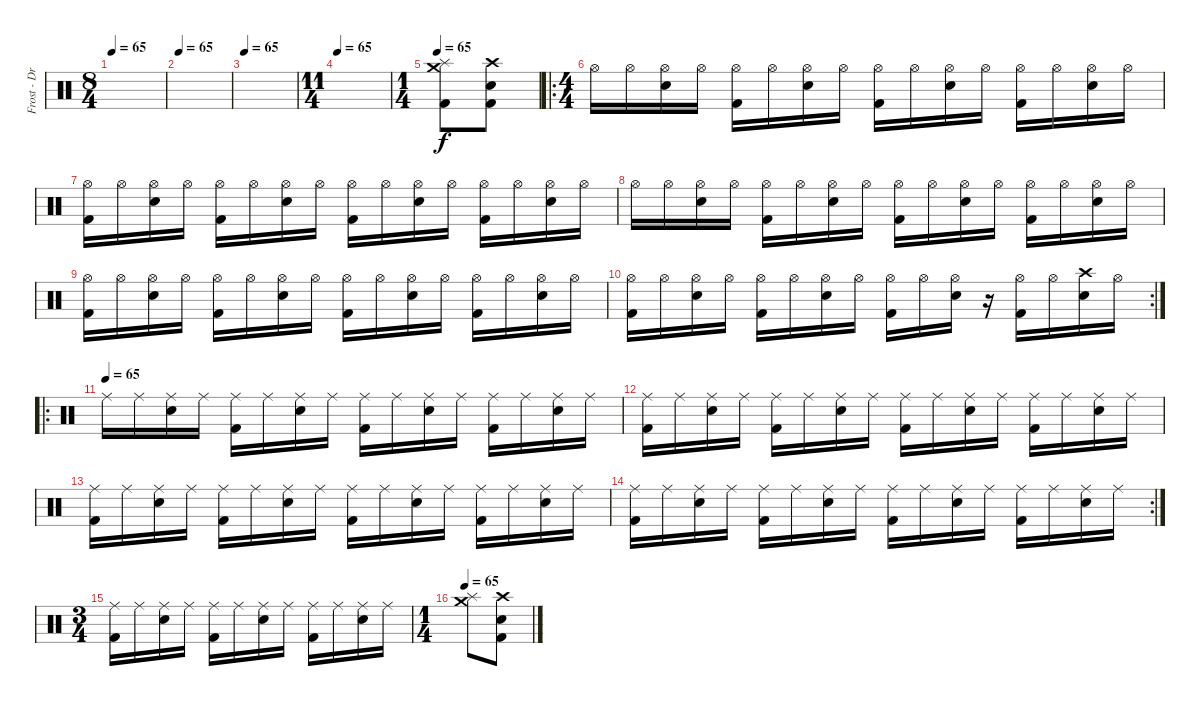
\track ("Frost - Drums" "Frost - Dr") {instrument percussion}
\staff {score}
\articulation defaults
\ts (8 4)
\tempo 65
\clef neutral
\ks c
|
\tempo 65
|
\tempo 65
|
\ts (11 4)
\tempo 65
|
\ts (1 4)
\tempo 65
("Crash medium (hit)" "Splash (hit)" "Kick (hit) 2").8 ("Crash high (hit)" "Electric Snare (hit)" "Kick (hit) 2").8 |
\ro
\ts (4 4)
"Hi-Hat (open)".16 "Hi-Hat (open)".16 ("Hi-Hat (open)" "Electric Snare (hit)").16 "Hi-Hat (open)".16 ("Hi-Hat (open)" "Kick (hit) 2").16 "Hi-Hat (open)".16 ("Hi-Hat (open)" "Electric Snare (hit)").16 "Hi-Hat (open)".16 ("Hi-Hat (open)" "Kick (hit) 2").16 "Hi-Hat (open)".16 ("Hi-Hat (open)" "Electric Snare (hit)").16 "Hi-Hat (open)".16 ("Hi-Hat (open)" "Kick (hit) 2").16 "Hi-Hat (open)".16 ("Hi-Hat (open)" "Electric Snare (hit)").16 "Hi-Hat (open)".16 |
("Hi-Hat (open)" "Kick (hit) 2").16 "Hi-Hat (open)".16 ("Hi-Hat (open)" "Electric Snare (hit)").16 "Hi-Hat (open)".16 ("Hi-Hat (open)" "Kick (hit) 2").16 "Hi-Hat (open)".16 ("Hi-Hat (open)" "Electric Snare (hit)").16 "Hi-Hat (open)".16 ("Hi-Hat (open)" "Kick (hit) 2").16 "Hi-Hat (open)".16 ("Hi-Hat (open)" "Electric Snare (hit)").16 "Hi-Hat (open)".16 ("Hi-Hat (open)" "Kick (hit) 2").16 "Hi-Hat (open)".16 ("Hi-Hat (open)" "Electric Snare (hit)").16 "Hi-Hat (open)".16 |
"Hi-Hat (open)".16 "Hi-Hat (open)".16 ("Hi-Hat (open)" "Electric Snare (hit)").16 "Hi-Hat (open)".16 ("Hi-Hat (open)" "Kick (hit) 2").16 "Hi-Hat (open)".16 ("Hi-Hat (open)" "Electric Snare (hit)").16 "Hi-Hat (open)".16 ("Hi-Hat (open)" "Kick (hit) 2").16 "Hi-Hat (open)".16 ("Hi-Hat (open)" "Electric Snare (hit)").16 "Hi-Hat (open)".16 ("Hi-Hat (open)" "Kick (hit) 2").16 "Hi-Hat (open)".16 ("Hi-Hat (open)" "Electric Snare (hit)").16 "Hi-Hat (open)".16 |
("Hi-Hat (open)" "Kick (hit) 2").16 "Hi-Hat (open)".16 ("Hi-Hat (open)" "Electric Snare (hit)").16 "Hi-Hat (open)".16 ("Hi-Hat (open)" "Kick (hit) 2").16 "Hi-Hat (open)".16 ("Hi-Hat (open)" "Electric Snare (hit)").16 "Hi-Hat (open)".16 ("Hi-Hat (open)" "Kick (hit) 2").16 "Hi-Hat (open)".16 ("Hi-Hat (open)" "Electric Snare (hit)").16 "Hi-Hat (open)".16 ("Hi-Hat (open)" "Kick (hit) 2").16 "Hi-Hat (open)".16 ("Hi-Hat (open)" "Electric Snare (hit)").16 "Hi-Hat (open)".16 |
\rc 2
("Hi-Hat (open)" "Kick (hit) 2").16 "Hi-Hat (open)".16 ("Hi-Hat (open)" "Electric Snare (hit)").16 "Hi-Hat (open)".16 ("Hi-Hat (open)" "Kick (hit) 2").16 "Hi-Hat (open)".16 ("Hi-Hat (open)" "Electric Snare (hit)").16 "Hi-Hat (open)".16 ("Hi-Hat (open)" "Kick (hit) 2").16 "Hi-Hat (open)".16 ("Hi-Hat (open)" "Electric Snare (hit)").16 r.16 ("Hi-Hat (open)" "Kick (hit) 2").16 "Hi-Hat (open)".16 ("Electric Snare (hit)" "Crash high (hit)").16 "Hi-Hat (open)".16 |
\ro
\tempo (65)
"Ride (middle)".16 "Ride (middle)".16 ("Ride (middle)" "Electric Snare (hit)").16 "Ride (middle)".16 ("Ride (middle)" "Kick (hit) 2").16 "Ride (middle)".16 ("Ride (middle)" "Electric Snare (hit)").16 "Ride (middle)".16 ("Ride (middle)" "Kick (hit) 2").16 "Ride (middle)".16 ("Ride (middle)" "Electric Snare (hit)").16 "Ride (middle)".16 ("Ride (middle)" "Kick (hit) 2").16 "Ride (middle)".16 ("Ride (middle)" "Electric Snare (hit)").16 "Ride (middle)".16 |
("Ride (middle)" "Kick (hit) 2").16 "Ride (middle)".16 ("Ride (middle)" "Electric Snare (hit)").16 "Ride (middle)".16 ("Ride (middle)" "Kick (hit) 2").16 "Ride (middle)".16 ("Ride (middle)" "Electric Snare (hit)").16 "Ride (middle)".16 ("Ride (middle)" "Kick (hit) 2").16 "Ride (middle)".16 ("Ride (middle)" "Electric Snare (hit)").16 "Ride (middle)".16 ("Ride (middle)" "Kick (hit) 2").16 "Ride (middle)".16 ("Ride (middle)" "Electric Snare (hit)").16 "Ride (middle)".16 |
("Ride (middle)" "Kick (hit) 2").16 "Ride (middle)".16 ("Ride (middle)" "Electric Snare (hit)").16 "Ride (middle)".16 ("Ride (middle)" "Kick (hit) 2").16 "Ride (middle)".16 ("Ride (middle)" "Electric Snare (hit)").16 "Ride (middle)".16 ("Ride (middle)" "Kick (hit) 2").16 "Ride (middle)".16 ("Ride (middle)" "Electric Snare (hit)").16 "Ride (middle)".16 ("Ride (middle)" "Kick (hit) 2").16 "Ride (middle)".16 ("Ride (middle)" "Electric Snare (hit)").16 "Ride (middle)".16 |
\rc 2
("Ride (middle)" "Kick (hit) 2").16 "Ride (middle)".16 ("Ride (middle)" "Electric Snare (hit)").16 "Ride (middle)".16 ("Ride (middle)" "Kick (hit) 2").16 "Ride (middle)".16 ("Ride (middle)" "Electric Snare (hit)").16 "Ride (middle)".16 ("Ride (middle)" "Kick (hit) 2").16 "Ride (middle)".16 ("Ride (middle)" "Electric Snare (hit)").16 "Ride (middle)".16 ("Ride (middle)" "Kick (hit) 2").16 "Ride (middle)".16 ("Ride (middle)" "Electric Snare (hit)").16 "Ride (middle)".16 |
\ts (3 4)
("Ride (middle)" "Kick (hit) 2").16 "Ride (middle)".16 ("Ride (middle)" "Electric Snare (hit)").16 "Ride (middle)".16 ("Ride (middle)" "Kick (hit) 2").16 "Ride (middle)".16 ("Ride (middle)" "Electric Snare (hit)").16 "Ride (middle)".16 ("Ride (middle)" "Kick (hit) 2").16 "Ride (middle)".16 ("Ride (middle)" "Electric Snare (hit)").16 "Ride (middle)".16 |
\ts (1 4)
\tempo 65
("Crash medium (hit)" "Splash (hit)").8 ("Crash high (hit)" "Electric Snare (hit)" "Kick (hit) 2").8
